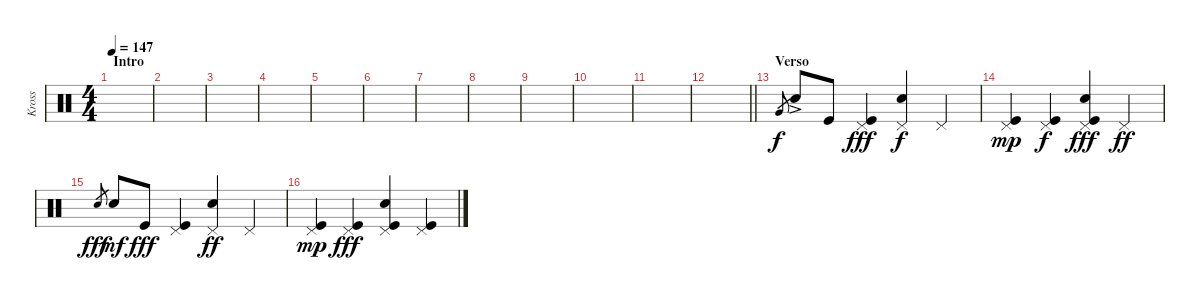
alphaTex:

\track ("Kross" "Kross") {instrument percussion}
\staff {score}
\articulation defaults
\ts (4 4)
\section ("" "Intro")
\tempo 147
\clef neutral
\ks c
|
|
|
|
|
|
|
|
|
|
|
\barLineRight lightlight
|
\section ("" "Verso")
"Very Low Tom (hit)"{h}.8{gr} "Electric Snare (hit)"{ac}.8 "Kick (hit)".8{dy f} ("Pedal Hi-Hat (hit)" "Kick (hit)").4{dy fff} ("Snare (hit) 2" "Pedal Hi-Hat (hit)").4{dy f} "Pedal Hi-Hat (hit)".4 |
("Kick (hit)" "Pedal Hi-Hat (hit)").4{dy mp} ("Kick (hit)" "Pedal Hi-Hat (hit)").4{dy f} ("Kick (hit)" "Snare (hit) 2" "Pedal Hi-Hat (hit)").4{dy fff} "Pedal Hi-Hat (hit)".4{dy ff} |
"Electric Snare (hit)".8{gr dy fff} "Electric Snare (hit)".8{dy mf} "Kick (hit)".8{dy fff} ("Pedal Hi-Hat (hit)" "Kick (hit)").4 ("Snare (hit) 2" "Pedal Hi-Hat (hit)").4{dy ff} "Pedal Hi-Hat (hit)".4 |
("Kick (hit)" "Pedal Hi-Hat (hit)").4{dy mp} ("Kick (hit)" "Pedal Hi-Hat (hit)").4{dy fff} ("Kick (hit)" "Snare (hit) 2" "Pedal Hi-Hat (hit)").4 ("Pedal Hi-Hat (hit)" "Kick (hit)").4
